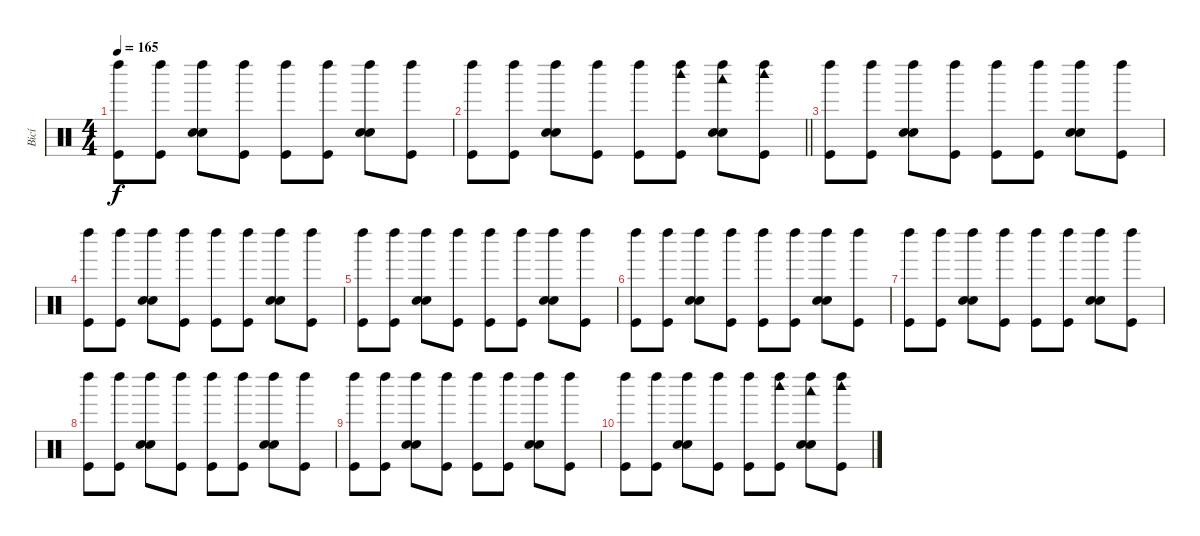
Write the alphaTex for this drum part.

\track ("Bicí" "Bicí") {instrument percussion}
\staff {score}
\articulation defaults
\ts (4 4)
\tempo 165
\clef neutral
\ks c
("Left Maraca (hit)" "Kick (hit)").8{dy f} ("Left Maraca (hit)" "Kick (hit)").8 ("Left Maraca (hit)" "Hand Clap (hit)" "Electric Snare (hit)").8 ("Left Maraca (hit)" "Kick (hit)").8 ("Left Maraca (hit)" "Kick (hit)").8 ("Left Maraca (hit)" "Kick (hit)").8 ("Left Maraca (hit)" "Hand Clap (hit)" "Electric Snare (hit)").8 ("Left Maraca (hit)" "Kick (hit)").8 |
\barLineRight lightlight
("Left Maraca (hit)" "Kick (hit)").8 ("Left Maraca (hit)" "Kick (hit)").8 ("Left Maraca (hit)" "Hand Clap (hit)" "Electric Snare (hit)").8 ("Left Maraca (hit)" "Kick (hit)").8 ("Left Maraca (hit)" "Kick (hit)").8 ("Woodblock high (hit)" "Left Maraca (hit)" "Kick (hit)").8 ("Woodblock low (hit)" "Left Maraca (hit)" "Hand Clap (hit)" "Electric Snare (hit)").8 ("Woodblock high (hit)" "Left Maraca (hit)" "Kick (hit)").8 |
\section ("" "")
("Left Maraca (hit)" "Kick (hit)").8 ("Left Maraca (hit)" "Kick (hit)").8 ("Left Maraca (hit)" "Hand Clap (hit)" "Electric Snare (hit)").8 ("Left Maraca (hit)" "Kick (hit)").8 ("Left Maraca (hit)" "Kick (hit)").8 ("Left Maraca (hit)" "Kick (hit)").8 ("Left Maraca (hit)" "Hand Clap (hit)" "Electric Snare (hit)").8 ("Left Maraca (hit)" "Kick (hit)").8 |
("Left Maraca (hit)" "Kick (hit)").8 ("Left Maraca (hit)" "Kick (hit)").8 ("Left Maraca (hit)" "Hand Clap (hit)" "Electric Snare (hit)").8 ("Left Maraca (hit)" "Kick (hit)").8 ("Left Maraca (hit)" "Kick (hit)").8 ("Left Maraca (hit)" "Kick (hit)").8 ("Left Maraca (hit)" "Hand Clap (hit)" "Electric Snare (hit)").8 ("Left Maraca (hit)" "Kick (hit)").8 |
("Left Maraca (hit)" "Kick (hit)").8 ("Left Maraca (hit)" "Kick (hit)").8 ("Left Maraca (hit)" "Hand Clap (hit)" "Electric Snare (hit)").8 ("Left Maraca (hit)" "Kick (hit)").8 ("Left Maraca (hit)" "Kick (hit)").8 ("Left Maraca (hit)" "Kick (hit)").8 ("Left Maraca (hit)" "Hand Clap (hit)" "Electric Snare (hit)").8 ("Left Maraca (hit)" "Kick (hit)").8 |
("Left Maraca (hit)" "Kick (hit)").8 ("Left Maraca (hit)" "Kick (hit)").8 ("Left Maraca (hit)" "Hand Clap (hit)" "Electric Snare (hit)").8 ("Left Maraca (hit)" "Kick (hit)").8 ("Left Maraca (hit)" "Kick (hit)").8 ("Left Maraca (hit)" "Kick (hit)").8 ("Left Maraca (hit)" "Hand Clap (hit)" "Electric Snare (hit)").8 ("Left Maraca (hit)" "Kick (hit)").8 |
("Left Maraca (hit)" "Kick (hit)").8 ("Left Maraca (hit)" "Kick (hit)").8 ("Left Maraca (hit)" "Hand Clap (hit)" "Electric Snare (hit)").8 ("Left Maraca (hit)" "Kick (hit)").8 ("Left Maraca (hit)" "Kick (hit)").8 ("Left Maraca (hit)" "Kick (hit)").8 ("Left Maraca (hit)" "Hand Clap (hit)" "Electric Snare (hit)").8 ("Left Maraca (hit)" "Kick (hit)").8 |
("Left Maraca (hit)" "Kick (hit)").8 ("Left Maraca (hit)" "Kick (hit)").8 ("Left Maraca (hit)" "Hand Clap (hit)" "Electric Snare (hit)").8 ("Left Maraca (hit)" "Kick (hit)").8 ("Left Maraca (hit)" "Kick (hit)").8 ("Left Maraca (hit)" "Kick (hit)").8 ("Left Maraca (hit)" "Hand Clap (hit)" "Electric Snare (hit)").8 ("Left Maraca (hit)" "Kick (hit)").8 |
("Left Maraca (hit)" "Kick (hit)").8 ("Left Maraca (hit)" "Kick (hit)").8 ("Left Maraca (hit)" "Hand Clap (hit)" "Electric Snare (hit)").8 ("Left Maraca (hit)" "Kick (hit)").8 ("Left Maraca (hit)" "Kick (hit)").8 ("Left Maraca (hit)" "Kick (hit)").8 ("Left Maraca (hit)" "Hand Clap (hit)" "Electric Snare (hit)").8 ("Left Maraca (hit)" "Kick (hit)").8 |
("Left Maraca (hit)" "Kick (hit)").8 ("Left Maraca (hit)" "Kick (hit)").8 ("Left Maraca (hit)" "Hand Clap (hit)" "Electric Snare (hit)").8 ("Left Maraca (hit)" "Kick (hit)").8 ("Left Maraca (hit)" "Kick (hit)").8 ("Woodblock high (hit)" "Left Maraca (hit)" "Kick (hit)").8 ("Woodblock low (hit)" "Left Maraca (hit)" "Hand Clap (hit)" "Electric Snare (hit)").8 ("Woodblock high (hit)" "Left Maraca (hit)" "Kick (hit)").8
